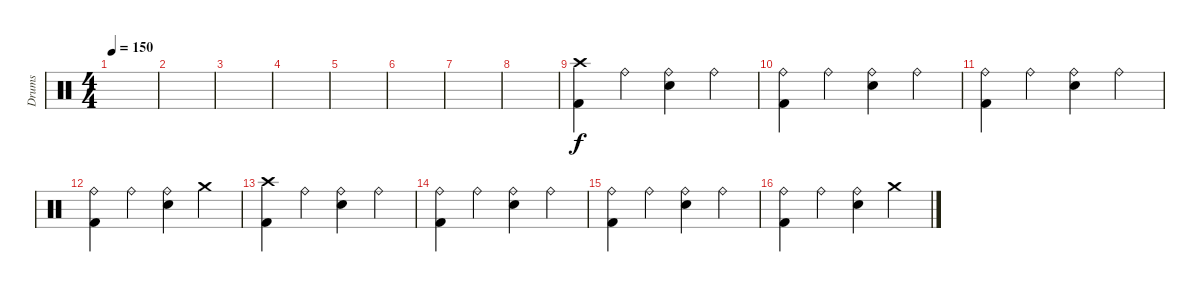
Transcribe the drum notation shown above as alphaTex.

\track ("Drums" "Drums") {instrument percussion}
\staff {score}
\articulation defaults
\ts (4 4)
\tempo 150
\clef neutral
\ks c
|
|
|
|
|
|
|
|
("Crash high (hit)" "Kick (hit) 2").4 "Ride (bell)".4 ("Ride (bell)" "Snare (hit) 2").4 "Ride (bell)".4 |
("Ride (bell)" "Kick (hit) 2").4 "Ride (bell)".4 ("Ride (bell)" "Snare (hit) 2").4 "Ride (bell)".4 |
("Ride (bell)" "Kick (hit) 2").4 "Ride (bell)".4 ("Ride (bell)" "Snare (hit) 2").4 "Ride (bell)".4 |
("Ride (bell)" "Kick (hit) 2").4 "Ride (bell)".4 ("Ride (bell)" "Snare (hit) 2").4 "Crash medium (hit)".4 |
("Crash high (hit)" "Kick (hit) 2").4 "Ride (bell)".4 ("Ride (bell)" "Snare (hit) 2").4 "Ride (bell)".4 |
("Ride (bell)" "Kick (hit) 2").4 "Ride (bell)".4 ("Ride (bell)" "Snare (hit) 2").4 "Ride (bell)".4 |
("Ride (bell)" "Kick (hit) 2").4 "Ride (bell)".4 ("Ride (bell)" "Snare (hit) 2").4 "Ride (bell)".4 |
("Ride (bell)" "Kick (hit) 2").4 "Ride (bell)".4 ("Ride (bell)" "Snare (hit) 2").4 "Crash medium (hit)".4
